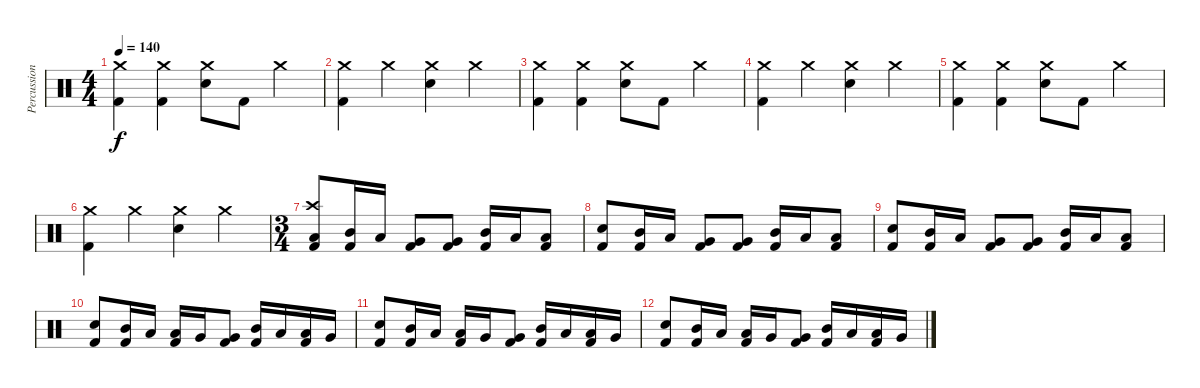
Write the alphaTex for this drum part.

\track ("Percussion" "Percussion") {instrument percussion}
\staff {score}
\articulation defaults
\ts (4 4)
\tempo 140
\clef neutral
\ks c
("Crash medium (hit)" "Kick (hit) 2").4{dy f} ("Crash medium (hit)" "Kick (hit) 2").4 ("Crash medium (hit)" "Electric Snare (hit)").8 "Kick (hit) 2".8 "Crash medium (hit)".4 |
("Crash medium (hit)" "Kick (hit) 2").4 "Crash medium (hit)".4 ("Crash medium (hit)" "Electric Snare (hit)").4 "Crash medium (hit)".4 |
("Crash medium (hit)" "Kick (hit) 2").4 ("Crash medium (hit)" "Kick (hit) 2").4 ("Crash medium (hit)" "Electric Snare (hit)").8 "Kick (hit) 2".8 "Crash medium (hit)".4 |
("Crash medium (hit)" "Kick (hit) 2").4 "Crash medium (hit)".4 ("Crash medium (hit)" "Electric Snare (hit)").4 "Crash medium (hit)".4 |
("Crash medium (hit)" "Kick (hit) 2").4 ("Crash medium (hit)" "Kick (hit) 2").4 ("Crash medium (hit)" "Electric Snare (hit)").8 "Kick (hit) 2".8 "Crash medium (hit)".4 |
("Crash medium (hit)" "Kick (hit) 2").4 "Crash medium (hit)".4 ("Crash medium (hit)" "Electric Snare (hit)").4 "Crash medium (hit)".4 |
\ts (3 4)
("Crash high (hit)" "Low Tom (hit)" "Kick (hit) 2").8 ("Mid Tom (hit)" "Kick (hit) 2").16 "Low Tom (hit)".16 ("Very Low Tom (hit)" "Kick (hit) 2").8 ("Very Low Tom (hit)" "Kick (hit) 2").8 ("Mid Tom (hit)" "Kick (hit) 2").16 "Low Tom (hit)".16 ("Low Tom (hit)" "Kick (hit) 2").8 |
("Electric Snare (hit)" "Kick (hit) 2").8 ("Mid Tom (hit)" "Kick (hit) 2").16 "Low Tom (hit)".16 ("Very Low Tom (hit)" "Kick (hit) 2").8 ("Very Low Tom (hit)" "Kick (hit) 2").8 ("Mid Tom (hit)" "Kick (hit) 2").16 "Low Tom (hit)".16 ("Low Tom (hit)" "Kick (hit) 2").8 |
("Electric Snare (hit)" "Kick (hit) 2").8 ("Mid Tom (hit)" "Kick (hit) 2").16 "Low Tom (hit)".16 ("Very Low Tom (hit)" "Kick (hit) 2").8 ("Very Low Tom (hit)" "Kick (hit) 2").8 ("Mid Tom (hit)" "Kick (hit) 2").16 "Low Tom (hit)".16 ("Low Tom (hit)" "Kick (hit) 2").8 |
("Electric Snare (hit)" "Kick (hit) 2").8 ("Mid Tom (hit)" "Kick (hit) 2").16 "Low Tom (hit)".16 ("Low Tom (hit)" "Kick (hit) 2").16 "Very Low Tom (hit)".16 ("Very Low Tom (hit)" "Kick (hit) 2").8 ("Mid Tom (hit)" "Kick (hit) 2").16 "Low Tom (hit)".16 ("Low Tom (hit)" "Kick (hit) 2").16 "Very Low Tom (hit)".16 |
("Electric Snare (hit)" "Kick (hit) 2").8 ("Mid Tom (hit)" "Kick (hit) 2").16 "Low Tom (hit)".16 ("Low Tom (hit)" "Kick (hit) 2").16 "Very Low Tom (hit)".16 ("Very Low Tom (hit)" "Kick (hit) 2").8 ("Mid Tom (hit)" "Kick (hit) 2").16 "Low Tom (hit)".16 ("Low Tom (hit)" "Kick (hit) 2").16 "Very Low Tom (hit)".16 |
("Electric Snare (hit)" "Kick (hit) 2").8 ("Mid Tom (hit)" "Kick (hit) 2").16 "Low Tom (hit)".16 ("Low Tom (hit)" "Kick (hit) 2").16 "Very Low Tom (hit)".16 ("Very Low Tom (hit)" "Kick (hit) 2").8 ("Mid Tom (hit)" "Kick (hit) 2").16 "Low Tom (hit)".16 ("Low Tom (hit)" "Kick (hit) 2").16 "Very Low Tom (hit)".16
